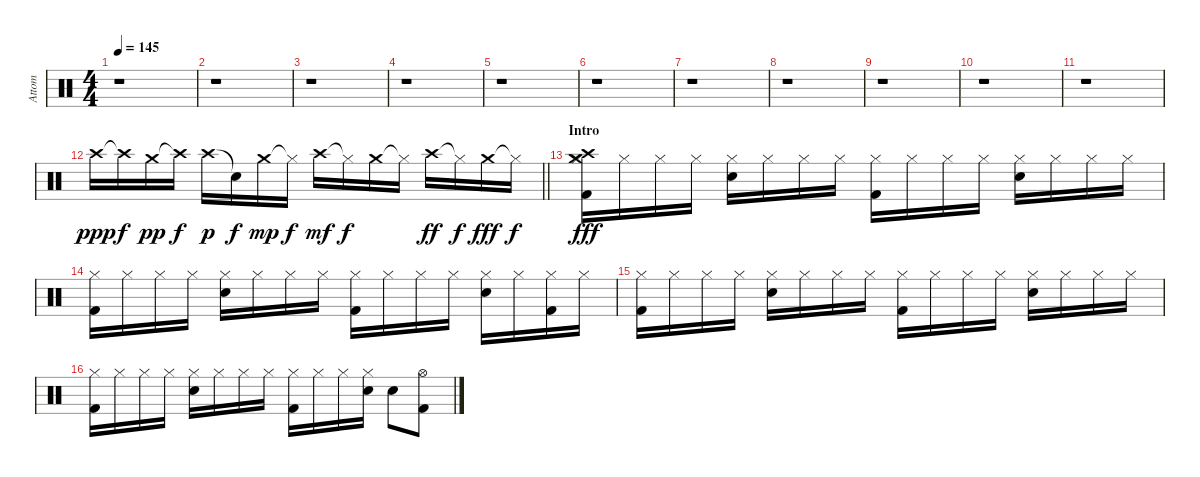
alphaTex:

\track ("Attom" "Attom") {instrument percussion}
\staff {score}
\articulation defaults
\ts (4 4)
\tempo 145
\clef neutral
\ks c
r.1{dy ppp} |
r.1 |
r.1 |
r.1 |
r.1 |
r.1 |
r.1 |
r.1 |
r.1 |
r.1 |
r.1 |
\barLineRight lightlight "Crash high (hit)".16 "Crash high (hit)"{t}.16{dy f} "Crash medium (hit)".16{dy pp} "Crash high (hit)"{t}.16{dy f} "Crash high (hit)".16{dy p} "Snare (hit)"{t}.16{dy f} "Crash medium (hit)".16{dy mp} "Hi-Hat (closed)"{t}.16{dy f} "Crash high (hit)".16{dy mf} "Hi-Hat (closed)"{t}.16{dy f} "Crash medium (hit)".16 "Hi-Hat (closed)"{t}.16 "Crash high (hit)".16{dy ff} "Hi-Hat (closed)"{t}.16{dy f} "Crash medium (hit)".16{dy fff} "Hi-Hat (closed)"{t}.16{dy f}
|
\section ("" "Intro")
("Hi-Hat (closed)" "Crash high (hit)" "Crash medium (hit)" "Kick (hit) 2").16{dy fff} "Hi-Hat (closed)".16 "Hi-Hat (closed)".16 "Hi-Hat (closed)".16 ("Hi-Hat (closed)" "Snare (hit) 2").16 "Hi-Hat (closed)".16 "Hi-Hat (closed)".16 "Hi-Hat (closed)".16 ("Hi-Hat (closed)" "Kick (hit) 2").16 "Hi-Hat (closed)".16 "Hi-Hat (closed)".16 "Hi-Hat (closed)".16 ("Hi-Hat (closed)" "Snare (hit) 2").16 "Hi-Hat (closed)".16 "Hi-Hat (closed)".16 "Hi-Hat (closed)".16 |
("Hi-Hat (closed)" "Kick (hit) 2").16 "Hi-Hat (closed)".16 "Hi-Hat (closed)".16 "Hi-Hat (closed)".16 ("Hi-Hat (closed)" "Snare (hit) 2").16 "Hi-Hat (closed)".16 "Hi-Hat (closed)".16 "Hi-Hat (closed)".16 ("Hi-Hat (closed)" "Kick (hit) 2").16 "Hi-Hat (closed)".16 "Hi-Hat (closed)".16 "Hi-Hat (closed)".16 ("Hi-Hat (closed)" "Snare (hit) 2").16 "Hi-Hat (closed)".16 ("Hi-Hat (closed)" "Kick (hit) 2").16 "Hi-Hat (closed)".16 |
("Hi-Hat (closed)" "Kick (hit) 2").16 "Hi-Hat (closed)".16 "Hi-Hat (closed)".16 "Hi-Hat (closed)".16 ("Hi-Hat (closed)" "Snare (hit) 2").16 "Hi-Hat (closed)".16 "Hi-Hat (closed)".16 "Hi-Hat (closed)".16 ("Hi-Hat (closed)" "Kick (hit) 2").16 "Hi-Hat (closed)".16 "Hi-Hat (closed)".16 "Hi-Hat (closed)".16 ("Hi-Hat (closed)" "Snare (hit) 2").16 "Hi-Hat (closed)".16 "Hi-Hat (closed)".16 "Hi-Hat (closed)".16 |
("Hi-Hat (closed)" "Kick (hit) 2").16 "Hi-Hat (closed)".16 "Hi-Hat (closed)".16 "Hi-Hat (closed)".16 ("Hi-Hat (closed)" "Snare (hit) 2").16 "Hi-Hat (closed)".16 "Hi-Hat (closed)".16 "Hi-Hat (closed)".16 ("Hi-Hat (closed)" "Kick (hit) 2").16 "Hi-Hat (closed)".16 "Hi-Hat (closed)".16 ("Hi-Hat (closed)" "Snare (hit) 2").16 "Snare (hit) 2".8 ("Hi-Hat (open)" "Kick (hit) 2").8
